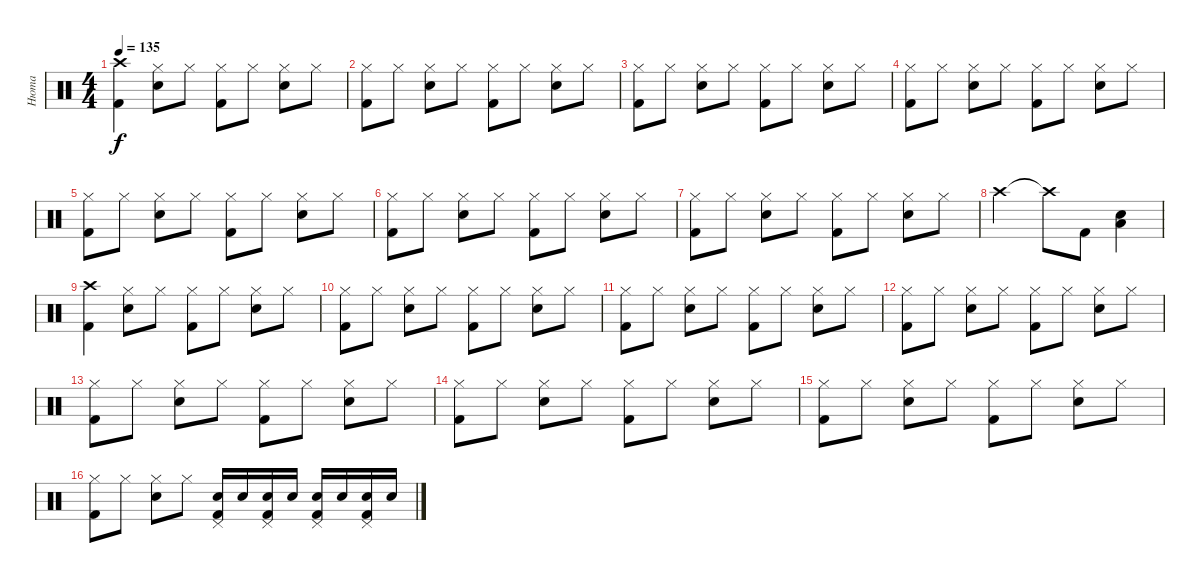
\track ("Нюта" "Нюта") {instrument percussion}
\staff {score}
\articulation defaults
\ts (4 4)
\tempo 135
\clef neutral
\ks c
("Crash high (hit)" "Kick (hit) 2").4{dy f} ("Hi-Hat (closed)" "Electric Snare (hit)").8 "Hi-Hat (closed)".8 ("Hi-Hat (closed)" "Kick (hit) 2").8 "Hi-Hat (closed)".8 ("Hi-Hat (closed)" "Electric Snare (hit)").8 "Hi-Hat (closed)".8 |
("Hi-Hat (closed)" "Kick (hit) 2").8 "Hi-Hat (closed)".8 ("Hi-Hat (closed)" "Electric Snare (hit)").8 "Hi-Hat (closed)".8 ("Hi-Hat (closed)" "Kick (hit) 2").8 "Hi-Hat (closed)".8 ("Hi-Hat (closed)" "Electric Snare (hit)").8 "Hi-Hat (closed)".8 |
("Hi-Hat (closed)" "Kick (hit) 2").8 "Hi-Hat (closed)".8 ("Hi-Hat (closed)" "Electric Snare (hit)").8 "Hi-Hat (closed)".8 ("Hi-Hat (closed)" "Kick (hit) 2").8 "Hi-Hat (closed)".8 ("Hi-Hat (closed)" "Electric Snare (hit)").8 "Hi-Hat (closed)".8 |
("Hi-Hat (closed)" "Kick (hit) 2").8 "Hi-Hat (closed)".8 ("Hi-Hat (closed)" "Electric Snare (hit)").8 "Hi-Hat (closed)".8 ("Hi-Hat (closed)" "Kick (hit) 2").8 "Hi-Hat (closed)".8 ("Hi-Hat (closed)" "Electric Snare (hit)").8 "Hi-Hat (closed)".8 |
("Hi-Hat (closed)" "Kick (hit) 2").8 "Hi-Hat (closed)".8 ("Hi-Hat (closed)" "Electric Snare (hit)").8 "Hi-Hat (closed)".8 ("Hi-Hat (closed)" "Kick (hit) 2").8 "Hi-Hat (closed)".8 ("Hi-Hat (closed)" "Electric Snare (hit)").8 "Hi-Hat (closed)".8 |
("Hi-Hat (closed)" "Kick (hit) 2").8 "Hi-Hat (closed)".8 ("Hi-Hat (closed)" "Electric Snare (hit)").8 "Hi-Hat (closed)".8 ("Hi-Hat (closed)" "Kick (hit) 2").8 "Hi-Hat (closed)".8 ("Hi-Hat (closed)" "Electric Snare (hit)").8 "Hi-Hat (closed)".8 |
("Hi-Hat (closed)" "Kick (hit) 2").8 "Hi-Hat (closed)".8 ("Hi-Hat (closed)" "Electric Snare (hit)").8 "Hi-Hat (closed)".8 ("Hi-Hat (closed)" "Kick (hit) 2").8 "Hi-Hat (closed)".8 ("Hi-Hat (closed)" "Electric Snare (hit)").8 "Hi-Hat (closed)".8 |
"Crash high (hit)".2 "Crash high (hit)"{t}.8 "Kick (hit) 2".8 ("Electric Snare (hit)" "Low Tom (hit)").4 |
("Crash high (hit)" "Kick (hit) 2").4 ("Hi-Hat (closed)" "Electric Snare (hit)").8 "Hi-Hat (closed)".8 ("Hi-Hat (closed)" "Kick (hit) 2").8 "Hi-Hat (closed)".8 ("Hi-Hat (closed)" "Electric Snare (hit)").8 "Hi-Hat (closed)".8 |
("Hi-Hat (closed)" "Kick (hit) 2").8 "Hi-Hat (closed)".8 ("Hi-Hat (closed)" "Electric Snare (hit)").8 "Hi-Hat (closed)".8 ("Hi-Hat (closed)" "Kick (hit) 2").8 "Hi-Hat (closed)".8 ("Hi-Hat (closed)" "Electric Snare (hit)").8 "Hi-Hat (closed)".8 |
("Hi-Hat (closed)" "Kick (hit) 2").8 "Hi-Hat (closed)".8 ("Hi-Hat (closed)" "Electric Snare (hit)").8 "Hi-Hat (closed)".8 ("Hi-Hat (closed)" "Kick (hit) 2").8 "Hi-Hat (closed)".8 ("Hi-Hat (closed)" "Electric Snare (hit)").8 "Hi-Hat (closed)".8 |
("Hi-Hat (closed)" "Kick (hit) 2").8 "Hi-Hat (closed)".8 ("Hi-Hat (closed)" "Electric Snare (hit)").8 "Hi-Hat (closed)".8 ("Hi-Hat (closed)" "Kick (hit) 2").8 "Hi-Hat (closed)".8 ("Hi-Hat (closed)" "Electric Snare (hit)").8 "Hi-Hat (closed)".8 |
("Hi-Hat (closed)" "Kick (hit) 2").8 "Hi-Hat (closed)".8 ("Hi-Hat (closed)" "Electric Snare (hit)").8 "Hi-Hat (closed)".8 ("Hi-Hat (closed)" "Kick (hit) 2").8 "Hi-Hat (closed)".8 ("Hi-Hat (closed)" "Electric Snare (hit)").8 "Hi-Hat (closed)".8 |
("Hi-Hat (closed)" "Kick (hit) 2").8 "Hi-Hat (closed)".8 ("Hi-Hat (closed)" "Electric Snare (hit)").8 "Hi-Hat (closed)".8 ("Hi-Hat (closed)" "Kick (hit) 2").8 "Hi-Hat (closed)".8 ("Hi-Hat (closed)" "Electric Snare (hit)").8 "Hi-Hat (closed)".8 |
("Hi-Hat (closed)" "Kick (hit) 2").8 "Hi-Hat (closed)".8 ("Hi-Hat (closed)" "Electric Snare (hit)").8 "Hi-Hat (closed)".8 ("Hi-Hat (closed)" "Kick (hit) 2").8 "Hi-Hat (closed)".8 ("Hi-Hat (closed)" "Electric Snare (hit)").8 "Hi-Hat (closed)".8 |
("Hi-Hat (closed)" "Kick (hit) 2").8 "Hi-Hat (closed)".8 ("Hi-Hat (closed)" "Electric Snare (hit)").8 "Hi-Hat (closed)".8 ("Electric Snare (hit)" "Kick (hit) 2" "Pedal Hi-Hat (hit)").16 "Electric Snare (hit)".16 ("Electric Snare (hit)" "Kick (hit) 2" "Pedal Hi-Hat (hit)").16 "Electric Snare (hit)".16 ("Electric Snare (hit)" "Kick (hit) 2" "Pedal Hi-Hat (hit)").16 "Electric Snare (hit)".16 ("Electric Snare (hit)" "Kick (hit) 2" "Pedal Hi-Hat (hit)").16 "Electric Snare (hit)".16
